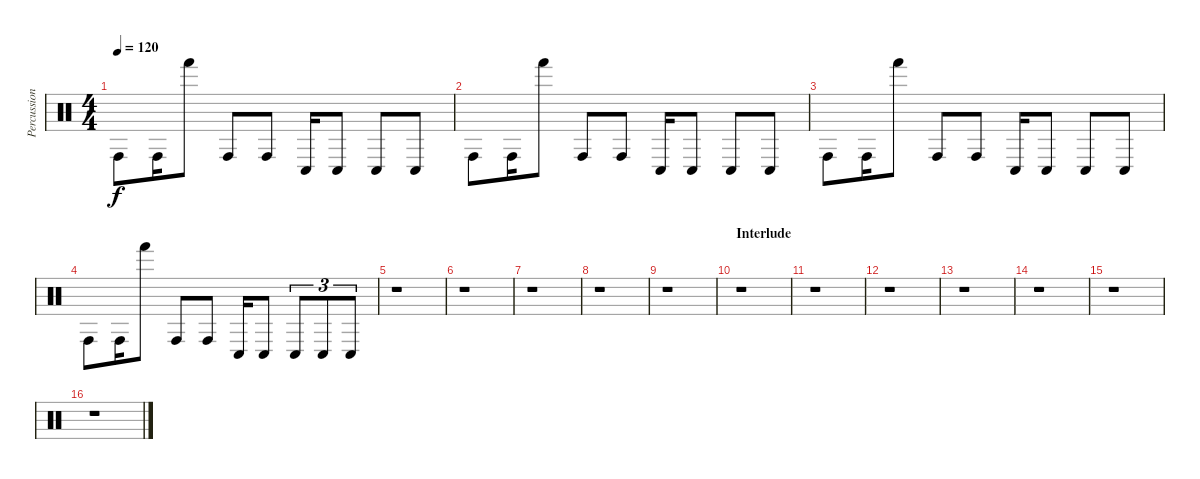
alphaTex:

\track ("Percussion" "Percussion") {instrument percussion}
\staff {score}
\articulation defaults
\ts (4 4)
\tempo 120
\clef neutral
\ks c "Conga high (hit)".8{dy f} "Conga high (hit)".16 "Hand (hit)".8 "Conga high (hit)".8 "Conga high (hit)".8 "Conga low (hit)".16 "Conga low (hit)".8 "Conga low (hit)".8 "Conga low (hit)".8
|
"Conga high (hit)".8 "Conga high (hit)".16 "Hand (hit)".8 "Conga high (hit)".8 "Conga high (hit)".8 "Conga low (hit)".16 "Conga low (hit)".8 "Conga low (hit)".8 "Conga low (hit)".8 |
"Conga high (hit)".8 "Conga high (hit)".16 "Hand (hit)".8 "Conga high (hit)".8 "Conga high (hit)".8 "Conga low (hit)".16 "Conga low (hit)".8 "Conga low (hit)".8 "Conga low (hit)".8 |
"Conga high (hit)".8 "Conga high (hit)".16 "Hand (hit)".8 "Conga high (hit)".8 "Conga high (hit)".8 "Conga low (hit)".16 "Conga low (hit)".8 "Conga low (hit)".8{tu (3 2)} "Conga low (hit)".8{tu (3 2)} "Conga low (hit)".8{tu (3 2)} |
r.1 |
r.1 |
r.1 |
r.1 |
r.1 |
\section ("" "Interlude")
r.1 |
r.1 |
r.1 |
r.1 |
r.1 |
r.1 |
r.1
